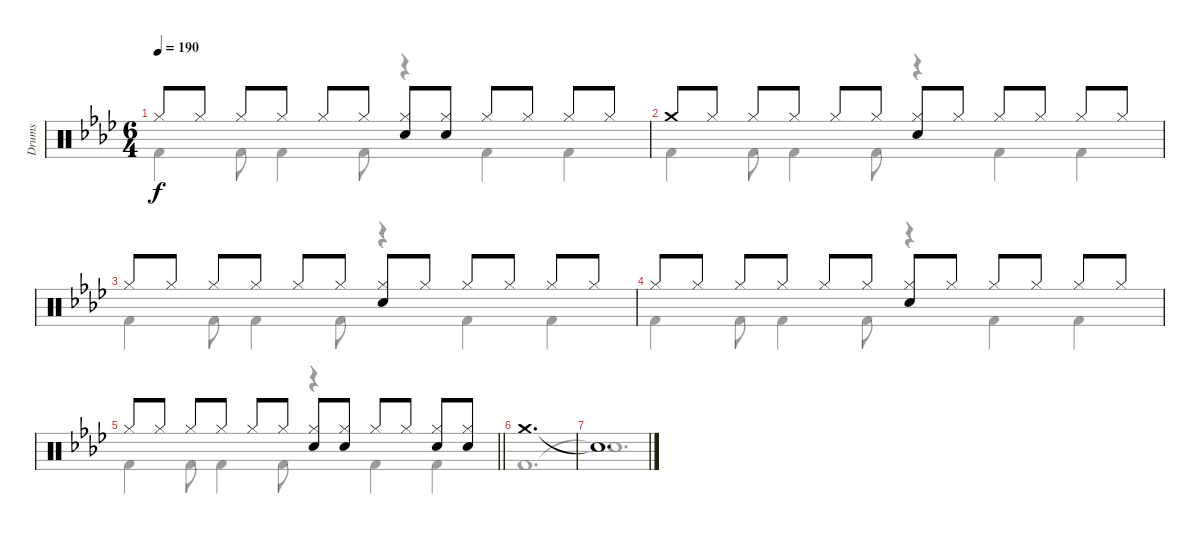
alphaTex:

\track ("Drums" "Drums") {instrument percussion}
\staff {score}
\articulation defaults
\voice
\ts (6 4)
\tempo 190
\clef neutral
\ks fminor "Hi-Hat (closed)".8{dy f} "Hi-Hat (closed)".8 "Hi-Hat (closed)".8 "Hi-Hat (closed)".8 "Hi-Hat (closed)".8 "Hi-Hat (closed)".8
("Hi-Hat (closed)" "Snare (hit) 2").8 ("Hi-Hat (closed)" "Snare (hit) 2").8 "Hi-Hat (closed)".8 "Hi-Hat (closed)".8 "Hi-Hat (closed)".8 "Hi-Hat (closed)".8 |
"Crash medium (hit)".8 "Hi-Hat (closed)".8 "Hi-Hat (closed)".8 "Hi-Hat (closed)".8 "Hi-Hat (closed)".8 "Hi-Hat (closed)".8 ("Hi-Hat (closed)" "Snare (hit) 2").8 "Hi-Hat (closed)".8 "Hi-Hat (closed)".8 "Hi-Hat (closed)".8 "Hi-Hat (closed)".8 "Hi-Hat (closed)".8 |
"Hi-Hat (closed)".8 "Hi-Hat (closed)".8 "Hi-Hat (closed)".8 "Hi-Hat (closed)".8 "Hi-Hat (closed)".8 "Hi-Hat (closed)".8 ("Hi-Hat (closed)" "Snare (hit) 2").8 "Hi-Hat (closed)".8 "Hi-Hat (closed)".8 "Hi-Hat (closed)".8 "Hi-Hat (closed)".8 "Hi-Hat (closed)".8 |
"Hi-Hat (closed)".8 "Hi-Hat (closed)".8 "Hi-Hat (closed)".8 "Hi-Hat (closed)".8 "Hi-Hat (closed)".8 "Hi-Hat (closed)".8 ("Hi-Hat (closed)" "Snare (hit) 2").8 "Hi-Hat (closed)".8 "Hi-Hat (closed)".8 "Hi-Hat (closed)".8 "Hi-Hat (closed)".8 "Hi-Hat (closed)".8 |
\barLineRight lightlight "Hi-Hat (closed)".8 "Hi-Hat (closed)".8 "Hi-Hat (closed)".8 "Hi-Hat (closed)".8 "Hi-Hat (closed)".8 "Hi-Hat (closed)".8
("Hi-Hat (closed)" "Snare (hit) 2").8 ("Hi-Hat (closed)" "Snare (hit) 2").8 "Hi-Hat (closed)".8 "Hi-Hat (closed)".8 ("Hi-Hat (closed)" "Snare (hit) 2").8 ("Hi-Hat (closed)" "Snare (hit) 2").8 |
"Crash medium (hit)".1{d} |
"Snare (hit)"{t}.1{d} |
|
\voice
\clef neutral
\ottava regular
\simile none
\ks fminor "Kick (hit) 2".4{dy f} "Kick (hit) 2".8 "Kick (hit) 2".4 "Kick (hit) 2".8
r.4 "Kick (hit) 2".4 "Kick (hit) 2".4 |
"Kick (hit) 2".4 "Kick (hit) 2".8 "Kick (hit) 2".4 "Kick (hit) 2".8 r.4 "Kick (hit) 2".4 "Kick (hit) 2".4 |
"Kick (hit) 2".4 "Kick (hit) 2".8 "Kick (hit) 2".4 "Kick (hit) 2".8 r.4 "Kick (hit) 2".4 "Kick (hit) 2".4 |
"Kick (hit) 2".4 "Kick (hit) 2".8 "Kick (hit) 2".4 "Kick (hit) 2".8 r.4 "Kick (hit) 2".4 "Kick (hit) 2".4 |
\barLineRight lightlight "Kick (hit) 2".4 "Kick (hit) 2".8 "Kick (hit) 2".4 "Kick (hit) 2".8
r.4 "Kick (hit) 2".4 "Kick (hit) 2".4 |
"Kick (hit) 2".1{d} |
"Snare (hit)"{t}.1{d} |
|
